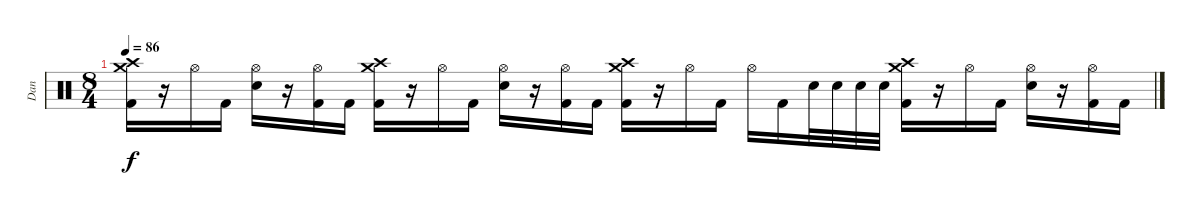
\track ("Dan" "Dan") {instrument percussion}
\staff {score}
\articulation defaults
\ts (8 4)
\tempo 86
\clef neutral
\ks c
("Crash high (hit)" "Crash medium (hit)" "Kick (hit) 2").16{dy f} r.16 "Hi-Hat (open)".16 "Kick (hit) 2".16 ("Hi-Hat (open)" "Electric Snare (hit)").16 r.16 ("Hi-Hat (open)" "Kick (hit) 2").16 "Kick (hit) 2".16 ("Crash high (hit)" "Crash medium (hit)" "Kick (hit) 2").16 r.16 "Hi-Hat (open)".16 "Kick (hit) 2".16 ("Hi-Hat (open)" "Electric Snare (hit)").16 r.16 ("Hi-Hat (open)" "Kick (hit) 2").16 "Kick (hit) 2".16 ("Crash high (hit)" "Crash medium (hit)" "Kick (hit) 2").16 r.16 "Hi-Hat (open)".16 "Kick (hit) 2".16 "Hi-Hat (open)".16 "Kick (hit) 2".16 "Electric Snare (hit)".32 "Electric Snare (hit)".32 "Electric Snare (hit)".32 "Electric Snare (hit)".32 ("Crash high (hit)" "Crash medium (hit)" "Kick (hit) 2").16 r.16 "Hi-Hat (open)".16 "Kick (hit) 2".16 ("Hi-Hat (open)" "Electric Snare (hit)").16 r.16 ("Hi-Hat (open)" "Kick (hit) 2").16 "Kick (hit) 2".16
